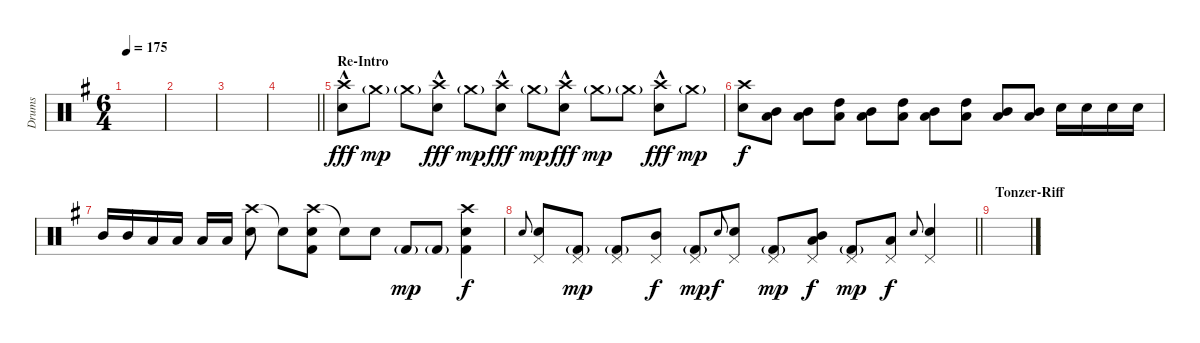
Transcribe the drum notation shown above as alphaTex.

\track ("Drums" "Drums") {instrument percussion}
\staff {score}
\articulation defaults
\ts (6 4)
\tempo 175
\clef neutral
\ks eminor
|
|
|
\barLineRight lightlight
|
\section ("" "Re-Intro")
("Crash high (hit)"{hac} "Electric Snare (hit)").8{dy fff} "Crash medium (hit)"{g}.8{dy mp} "Crash medium (hit)"{g}.8 ("Crash high (hit)"{hac} "Electric Snare (hit)").8{dy fff} "Crash medium (hit)"{g}.8{dy mp} ("Crash high (hit)"{hac} "Electric Snare (hit)").8{dy fff} "Crash medium (hit)"{g}.8{dy mp} ("Crash high (hit)"{hac} "Electric Snare (hit)").8{dy fff} "Crash medium (hit)"{g}.8{dy mp} "Crash medium (hit)"{g}.8 ("Crash high (hit)"{hac} "Electric Snare (hit)").8{dy fff} "Crash medium (hit)"{g}.8{dy mp} |
("Crash high (hit)" "Electric Snare (hit)").8{dy f} ("Mid Tom (hit)" "Low Tom (hit)").8 ("Mid Tom (hit)" "Low Tom (hit)").8 ("High Tom (hit)" "Low Tom (hit)").8 ("Mid Tom (hit)" "Low Tom (hit)").8 ("High Tom (hit)" "Low Tom (hit)").8 ("Mid Tom (hit)" "Low Tom (hit)").8 ("High Tom (hit)" "Low Tom (hit)").8 ("Mid Tom (hit)" "Low Tom (hit)").8 ("Mid Tom (hit)" "Low Tom (hit)").8 "Electric Snare (hit)".16 "Electric Snare (hit)".16 "Electric Snare (hit)".16 "Electric Snare (hit)".16 |
"Mid Tom (hit)".16 "Mid Tom (hit)".16 "Low Tom (hit)".16 "Low Tom (hit)".16 "Low Tom (hit)".16 "Low Tom (hit)".16{beam split} ("Crash high (hit)" "Electric Snare (hit)").8{beam split} "Snare (hit)"{t}.8 ("Crash high (hit)" "Electric Snare (hit)" "Kick (hit) 2").8 "Snare (hit)"{t}.8 "Electric Snare (hit)".8{beam split} "Kick (hit) 2"{g}.8{dy mp} "Kick (hit) 2"{g}.8 ("Crash high (hit)" "Electric Snare (hit)" "Kick (hit) 2").4{dy f} |
\barLineRight lightlight "Electric Snare (hit)".8{gr onbeat}
("Pedal Hi-Hat (hit)" "Electric Snare (hit)").8 ("Pedal Hi-Hat (hit)" "Kick (hit) 2"{g}).8{dy mp} ("Pedal Hi-Hat (hit)" "Kick (hit) 2"{g}).8 ("Pedal Hi-Hat (hit)" "Mid Tom (hit)").8{dy f} ("Pedal Hi-Hat (hit)" "Kick (hit) 2"{g}).8{dy mp} "Electric Snare (hit)".8{gr onbeat dy f} ("Pedal Hi-Hat (hit)" "Electric Snare (hit)").8 ("Pedal Hi-Hat (hit)" "Kick (hit) 2"{g}).8{dy mp} ("Pedal Hi-Hat (hit)" "Mid Tom (hit)" "Low Tom (hit)").8{dy f} ("Pedal Hi-Hat (hit)" "Kick (hit) 2"{g}).8{dy mp} ("Pedal Hi-Hat (hit)" "Low Tom (hit)").8{dy f} "Electric Snare (hit)".8{gr onbeat} ("Pedal Hi-Hat (hit)" "Electric Snare (hit)").4 |
\section ("" "Tonzer-Riff")
